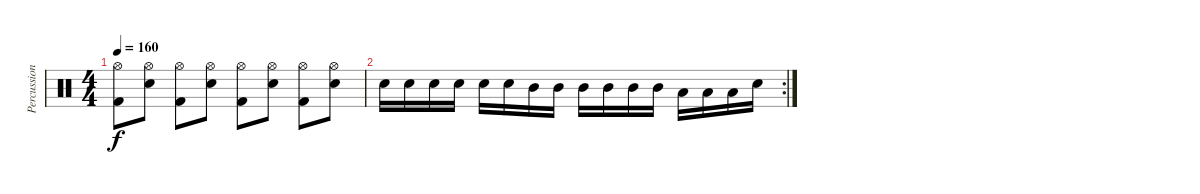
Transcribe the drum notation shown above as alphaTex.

\track ("Percussions" "Percussion") {instrument percussion}
\staff {score}
\articulation defaults
\ts (4 4)
\tempo 160
\clef neutral
\ks c
("Kick (hit) 2" "Hi-Hat (open)").8{dy f} ("Snare (hit) 2" "Hi-Hat (open)").8 ("Kick (hit) 2" "Hi-Hat (open)").8 ("Snare (hit) 2" "Hi-Hat (open)").8 ("Kick (hit) 2" "Hi-Hat (open)").8 ("Snare (hit) 2" "Hi-Hat (open)").8 ("Kick (hit) 2" "Hi-Hat (open)").8 ("Snare (hit) 2" "Hi-Hat (open)").8 |
\rc 2 "Snare (hit) 2".16 "Snare (hit) 2".16 "Snare (hit) 2".16 "Snare (hit) 2".16 "Snare (hit) 2".16 "Snare (hit) 2".16 "Mid Tom (hit)".16 "Mid Tom (hit)".16 "Mid Tom (hit)".16 "Mid Tom (hit)".16 "Mid Tom (hit)".16 "Mid Tom (hit)".16 "Low Tom (hit)".16 "Low Tom (hit)".16 "Low Tom (hit)".16 "Snare (hit) 2".16
